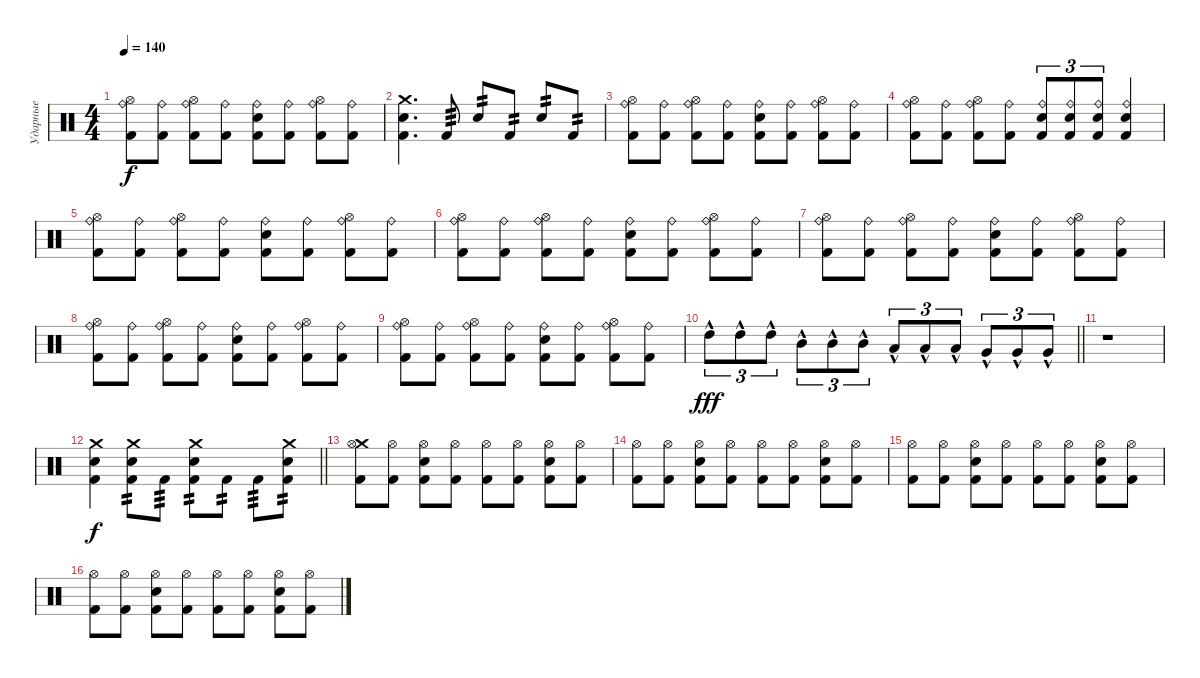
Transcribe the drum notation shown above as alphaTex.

\track ("Ударные" "Ударные") {instrument percussion}
\staff {score}
\articulation defaults
\ts (4 4)
\tempo 140
\clef neutral
\ks c
("Kick (hit) 2" "Ride (bell)" "Hi-Hat (open)").8{dy f} ("Kick (hit) 2" "Ride (bell)").8 ("Kick (hit) 2" "Ride (bell)" "Hi-Hat (open)").8 ("Kick (hit) 2" "Ride (bell)").8 ("Kick (hit) 2" "Ride (bell)" "Snare (hit) 2").8 ("Kick (hit) 2" "Ride (bell)").8 ("Kick (hit) 2" "Ride (bell)" "Hi-Hat (open)").8 ("Kick (hit) 2" "Ride (bell)").8 |
("Kick (hit) 2" "Snare (hit) 2" "Crash medium (hit)").4{d} "Kick (hit) 2".8{tp 3} "Snare (hit) 2".8{tp 2} "Kick (hit) 2".8{tp 2} "Snare (hit) 2".8{tp 2} "Kick (hit) 2".8{tp 2} |
("Kick (hit) 2" "Ride (bell)" "Hi-Hat (open)").8 ("Kick (hit) 2" "Ride (bell)").8 ("Kick (hit) 2" "Ride (bell)" "Hi-Hat (open)").8 ("Kick (hit) 2" "Ride (bell)").8 ("Kick (hit) 2" "Ride (bell)" "Snare (hit) 2").8 ("Kick (hit) 2" "Ride (bell)").8 ("Kick (hit) 2" "Ride (bell)" "Hi-Hat (open)").8 ("Kick (hit) 2" "Ride (bell)").8 |
("Kick (hit) 2" "Ride (bell)" "Hi-Hat (open)").8 ("Kick (hit) 2" "Ride (bell)").8 ("Kick (hit) 2" "Ride (bell)" "Hi-Hat (open)").8 ("Kick (hit) 2" "Ride (bell)").8 ("Kick (hit) 2" "Ride (bell)" "Snare (hit) 2").8{tu (3 2)} ("Kick (hit) 2" "Ride (bell)" "Snare (hit) 2").8{tu (3 2)} ("Kick (hit) 2" "Ride (bell)" "Snare (hit) 2").8{tu (3 2)} ("Kick (hit) 2" "Ride (bell)" "Snare (hit) 2").4 |
("Kick (hit) 2" "Ride (bell)" "Hi-Hat (open)").8 ("Kick (hit) 2" "Ride (bell)").8 ("Kick (hit) 2" "Ride (bell)" "Hi-Hat (open)").8 ("Kick (hit) 2" "Ride (bell)").8 ("Kick (hit) 2" "Ride (bell)" "Snare (hit) 2").8 ("Kick (hit) 2" "Ride (bell)").8 ("Kick (hit) 2" "Ride (bell)" "Hi-Hat (open)").8 ("Kick (hit) 2" "Ride (bell)").8 |
("Kick (hit) 2" "Ride (bell)" "Hi-Hat (open)").8 ("Kick (hit) 2" "Ride (bell)").8 ("Kick (hit) 2" "Ride (bell)" "Hi-Hat (open)").8 ("Kick (hit) 2" "Ride (bell)").8 ("Kick (hit) 2" "Ride (bell)" "Snare (hit) 2").8 ("Kick (hit) 2" "Ride (bell)").8 ("Kick (hit) 2" "Ride (bell)" "Hi-Hat (open)").8 ("Kick (hit) 2" "Ride (bell)").8 |
("Kick (hit) 2" "Ride (bell)" "Hi-Hat (open)").8 ("Kick (hit) 2" "Ride (bell)").8 ("Kick (hit) 2" "Ride (bell)" "Hi-Hat (open)").8 ("Kick (hit) 2" "Ride (bell)").8 ("Kick (hit) 2" "Ride (bell)" "Snare (hit) 2").8 ("Kick (hit) 2" "Ride (bell)").8 ("Kick (hit) 2" "Ride (bell)" "Hi-Hat (open)").8 ("Kick (hit) 2" "Ride (bell)").8 |
("Kick (hit) 2" "Ride (bell)" "Hi-Hat (open)").8 ("Kick (hit) 2" "Ride (bell)").8 ("Kick (hit) 2" "Ride (bell)" "Hi-Hat (open)").8 ("Kick (hit) 2" "Ride (bell)").8 ("Kick (hit) 2" "Ride (bell)" "Snare (hit) 2").8 ("Kick (hit) 2" "Ride (bell)").8 ("Kick (hit) 2" "Ride (bell)" "Hi-Hat (open)").8 ("Kick (hit) 2" "Ride (bell)").8 |
("Kick (hit) 2" "Ride (bell)" "Hi-Hat (open)").8 ("Kick (hit) 2" "Ride (bell)").8 ("Kick (hit) 2" "Ride (bell)" "Hi-Hat (open)").8 ("Kick (hit) 2" "Ride (bell)").8 ("Kick (hit) 2" "Ride (bell)" "Snare (hit) 2").8 ("Kick (hit) 2" "Ride (bell)").8 ("Kick (hit) 2" "Ride (bell)" "Hi-Hat (open)").8 ("Kick (hit) 2" "Ride (bell)").8 |
\barLineRight lightlight "High Tom (hit)"{hac}.8{tu (3 2) dy fff} "High Tom (hit)"{hac}.8{tu (3 2)} "High Tom (hit)"{hac}.8{tu (3 2)} "Mid Tom (hit)"{hac}.8{tu (3 2)} "Mid Tom (hit)"{hac}.8{tu (3 2)} "Mid Tom (hit)"{hac}.8{tu (3 2)} "Low Tom (hit)"{hac}.8{tu (3 2)} "Low Tom (hit)"{hac}.8{tu (3 2)} "Low Tom (hit)"{hac}.8{tu (3 2)} "Very Low Tom (hit)"{hac}.8{tu (3 2)} "Very Low Tom (hit)"{hac}.8{tu (3 2)} "Very Low Tom (hit)"{hac}.8{tu (3 2)}
|
r.1 |
\barLineRight lightlight
("Kick (hit) 2" "Snare (hit) 2" "Crash medium (hit)").4{dy f volume 14} ("Kick (hit) 2" "Snare (hit) 2" "Crash medium (hit)").8{tp 2} "Kick (hit) 2".8{tp 3} ("Kick (hit) 2" "Snare (hit) 2" "Crash medium (hit)").8{tp 2} "Kick (hit) 2".8{tp 2} "Kick (hit) 2".8{tp 3} ("Kick (hit) 2" "Snare (hit) 2" "Crash medium (hit)").8{tp 2} |
("Kick (hit) 2" "Crash medium (hit)" "Hi-Hat (open)").8 ("Kick (hit) 2" "Hi-Hat (open)").8 ("Kick (hit) 2" "Hi-Hat (open)" "Snare (hit) 2").8 ("Kick (hit) 2" "Hi-Hat (open)").8 ("Kick (hit) 2" "Hi-Hat (open)").8 ("Kick (hit) 2" "Hi-Hat (open)").8 ("Kick (hit) 2" "Hi-Hat (open)" "Snare (hit) 2").8 ("Kick (hit) 2" "Hi-Hat (open)").8 |
("Kick (hit) 2" "Hi-Hat (open)").8 ("Kick (hit) 2" "Hi-Hat (open)").8 ("Kick (hit) 2" "Hi-Hat (open)" "Snare (hit) 2").8 ("Kick (hit) 2" "Hi-Hat (open)").8 ("Kick (hit) 2" "Hi-Hat (open)").8 ("Kick (hit) 2" "Hi-Hat (open)").8 ("Kick (hit) 2" "Hi-Hat (open)" "Snare (hit) 2").8 ("Kick (hit) 2" "Hi-Hat (open)").8 |
("Kick (hit) 2" "Hi-Hat (open)").8 ("Kick (hit) 2" "Hi-Hat (open)").8 ("Kick (hit) 2" "Hi-Hat (open)" "Snare (hit) 2").8 ("Kick (hit) 2" "Hi-Hat (open)").8 ("Kick (hit) 2" "Hi-Hat (open)").8 ("Kick (hit) 2" "Hi-Hat (open)").8 ("Kick (hit) 2" "Hi-Hat (open)" "Snare (hit) 2").8 ("Kick (hit) 2" "Hi-Hat (open)").8 |
("Kick (hit) 2" "Hi-Hat (open)").8 ("Kick (hit) 2" "Hi-Hat (open)").8 ("Kick (hit) 2" "Hi-Hat (open)" "Snare (hit) 2").8 ("Kick (hit) 2" "Hi-Hat (open)").8 ("Kick (hit) 2" "Hi-Hat (open)").8 ("Kick (hit) 2" "Hi-Hat (open)").8 ("Kick (hit) 2" "Hi-Hat (open)" "Snare (hit) 2").8 ("Kick (hit) 2" "Hi-Hat (open)").8
